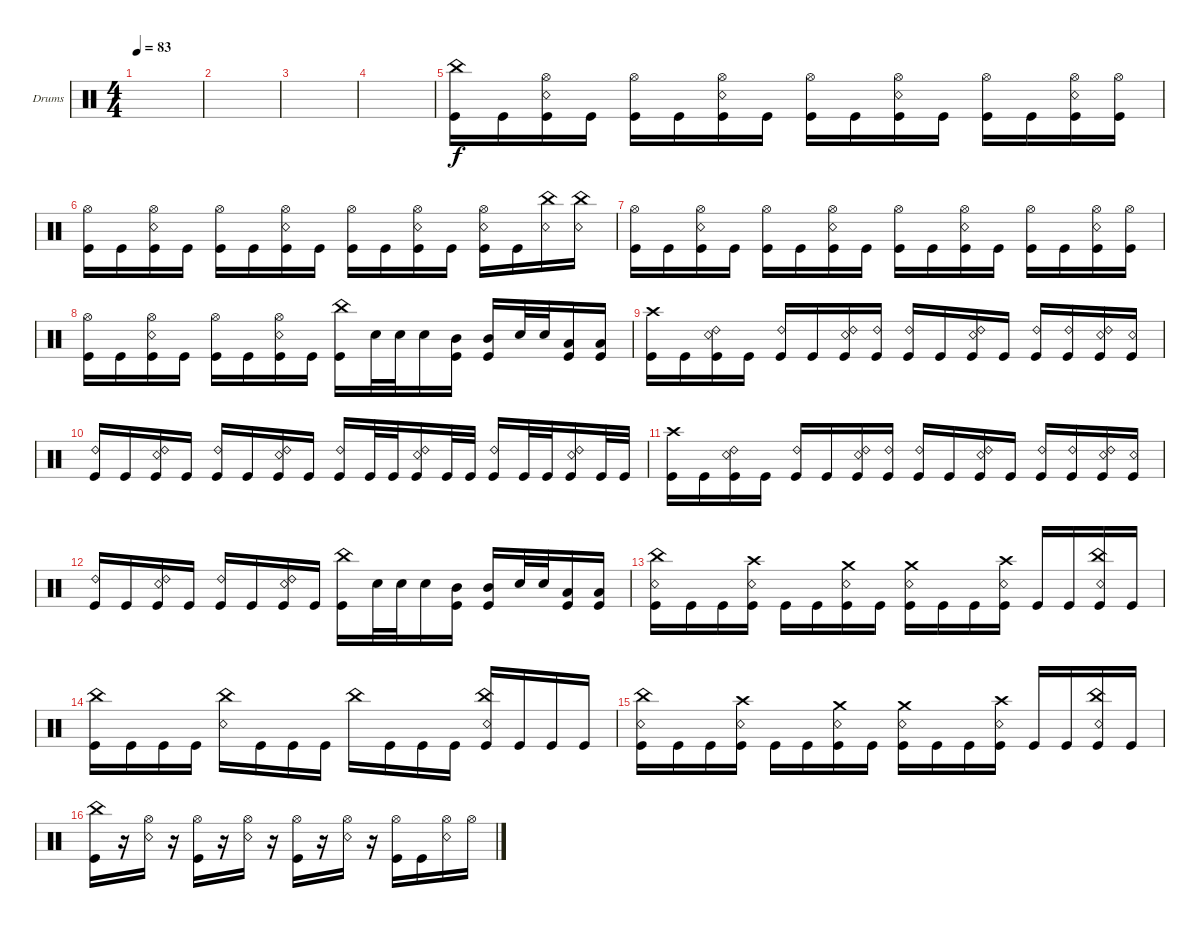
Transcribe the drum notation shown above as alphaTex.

\defaultSystemsLayout 4
\bracketExtendMode groupsimilarinstruments
\firstSystemTrackNameOrientation horizontal
\otherSystemsTrackNameOrientation horizontal
\track ("Drumkit" "Drums") {instrument percussion}
\staff {score}
\articulation defaults
\ts (4 4)
\tempo 83
\clef neutral
\ks c
|
|
|
|
("Kick (hit)" "China (hit)").16 "Kick (hit)".16 ("Kick (hit)" "Snare (rim shot)" "Hi-Hat (open)").16 "Kick (hit)".16 ("Kick (hit)" "Hi-Hat (open)").16 "Kick (hit)".16 ("Kick (hit)" "Snare (rim shot)" "Hi-Hat (open)").16 "Kick (hit)".16 ("Kick (hit)" "Hi-Hat (open)").16 "Kick (hit)".16 ("Kick (hit)" "Snare (rim shot)" "Hi-Hat (open)").16 "Kick (hit)".16 ("Kick (hit)" "Hi-Hat (open)").16 "Kick (hit)".16 ("Kick (hit)" "Snare (rim shot)" "Hi-Hat (open)").16 ("Kick (hit)" "Hi-Hat (open)").16 |
("Kick (hit)" "Hi-Hat (open)").16 "Kick (hit)".16 ("Kick (hit)" "Snare (rim shot)" "Hi-Hat (open)").16 "Kick (hit)".16 ("Kick (hit)" "Hi-Hat (open)").16 "Kick (hit)".16 ("Kick (hit)" "Snare (rim shot)" "Hi-Hat (open)").16 "Kick (hit)".16 ("Kick (hit)" "Hi-Hat (open)").16 "Kick (hit)".16 ("Kick (hit)" "Snare (rim shot)" "Hi-Hat (open)").16 "Kick (hit)".16 ("Kick (hit)" "Snare (rim shot)" "Hi-Hat (open)").16 "Kick (hit)".16 ("Snare (rim shot)" "China (hit)").16 ("Snare (rim shot)" "China (hit)").16 |
("Kick (hit)" "Hi-Hat (open)").16 "Kick (hit)".16 ("Kick (hit)" "Snare (rim shot)" "Hi-Hat (open)").16 "Kick (hit)".16 ("Kick (hit)" "Hi-Hat (open)").16 "Kick (hit)".16 ("Kick (hit)" "Snare (rim shot)" "Hi-Hat (open)").16 "Kick (hit)".16 ("Kick (hit)" "Hi-Hat (open)").16 "Kick (hit)".16 ("Kick (hit)" "Snare (rim shot)" "Hi-Hat (open)").16 "Kick (hit)".16 ("Kick (hit)" "Hi-Hat (open)").16 "Kick (hit)".16 ("Kick (hit)" "Snare (rim shot)" "Hi-Hat (open)").16 ("Kick (hit)" "Hi-Hat (open)").16 |
("Kick (hit)" "Hi-Hat (open)").16 "Kick (hit)".16 ("Kick (hit)" "Snare (rim shot)" "Hi-Hat (open)").16 "Kick (hit)".16 ("Kick (hit)" "Hi-Hat (open)").16 "Kick (hit)".16 ("Kick (hit)" "Snare (rim shot)" "Hi-Hat (open)").16 "Kick (hit)".16 ("China (hit)" "Kick (hit)").16 "Snare (hit) 2".32 "Snare (hit) 2".32 "Snare (hit) 2".16 ("Mid Tom (hit)" "Kick (hit)").16 ("Mid Tom (hit)" "Kick (hit)").16 "Snare (hit) 2".32 "Snare (hit) 2".32 ("Low Tom (hit)" "Kick (hit)").16 ("Low Tom (hit)" "Kick (hit)").16 |
("Kick (hit)" "Crash high (hit)").16 "Kick (hit)".16 ("Kick (hit)" "Ride (bell) 2" "Snare (rim shot)").16 "Kick (hit)".16 ("Kick (hit)" "Ride (bell) 2").16 "Kick (hit)".16 ("Kick (hit)" "Ride (bell) 2" "Snare (rim shot)").16 ("Kick (hit)" "Ride (bell) 2").16 ("Kick (hit)" "Ride (bell) 2").16 "Kick (hit)".16 ("Kick (hit)" "Ride (bell) 2" "Snare (rim shot)").16 "Kick (hit)".16 ("Kick (hit)" "Ride (bell) 2").16 ("Kick (hit)" "Ride (bell) 2").16 ("Kick (hit)" "Ride (bell) 2" "Snare (rim shot)").16 ("Kick (hit)" "Snare (rim shot)").16 |
("Kick (hit)" "Ride (bell) 2").16 "Kick (hit)".16 ("Kick (hit)" "Ride (bell) 2" "Snare (rim shot)").16 "Kick (hit)".16 ("Kick (hit)" "Ride (bell) 2").16 "Kick (hit)".16 ("Kick (hit)" "Ride (bell) 2" "Snare (rim shot)").16 "Kick (hit)".16 ("Kick (hit)" "Ride (bell) 2").16 "Kick (hit)".32 "Kick (hit)".32 ("Kick (hit)" "Ride (bell) 2" "Snare (rim shot)").16 "Kick (hit)".32 "Kick (hit)".32 ("Kick (hit)" "Ride (bell) 2").16 "Kick (hit)".32 "Kick (hit)".32 ("Kick (hit)" "Ride (bell) 2" "Snare (rim shot)").16 "Kick (hit)".32 "Kick (hit)".32 |
("Kick (hit)" "Crash high (hit)").16 "Kick (hit)".16 ("Kick (hit)" "Ride (bell) 2" "Snare (rim shot)").16 "Kick (hit)".16 ("Kick (hit)" "Ride (bell) 2").16 "Kick (hit)".16 ("Kick (hit)" "Ride (bell) 2" "Snare (rim shot)").16 ("Kick (hit)" "Ride (bell) 2").16 ("Kick (hit)" "Ride (bell) 2").16 "Kick (hit)".16 ("Kick (hit)" "Ride (bell) 2" "Snare (rim shot)").16 "Kick (hit)".16 ("Kick (hit)" "Ride (bell) 2").16 ("Kick (hit)" "Ride (bell) 2").16 ("Kick (hit)" "Ride (bell) 2" "Snare (rim shot)").16 ("Kick (hit)" "Snare (rim shot)").16 |
("Kick (hit)" "Ride (bell) 2").16 "Kick (hit)".16 ("Kick (hit)" "Ride (bell) 2" "Snare (rim shot)").16 "Kick (hit)".16 ("Kick (hit)" "Ride (bell) 2").16 "Kick (hit)".16 ("Kick (hit)" "Ride (bell) 2" "Snare (rim shot)").16 "Kick (hit)".16 ("China (hit)" "Kick (hit)").16 "Snare (hit) 2".32 "Snare (hit) 2".32 "Snare (hit) 2".16 ("Mid Tom (hit)" "Kick (hit)").16 ("Mid Tom (hit)" "Kick (hit)").16 "Snare (hit) 2".32 "Snare (hit) 2".32 ("Low Tom (hit)" "Kick (hit)").16 ("Low Tom (hit)" "Kick (hit)").16 |
("Kick (hit)" "Snare (rim shot)" "China (hit)").16 "Kick (hit)".16 "Kick (hit)".16 ("Kick (hit)" "Snare (rim shot)" "Crash high (hit)").16 "Kick (hit)".16 "Kick (hit)".16 ("Kick (hit)" "Snare (rim shot)" "Crash medium (hit)").16 "Kick (hit)".16 ("Kick (hit)" "Snare (rim shot)" "Crash medium (hit)").16 "Kick (hit)".16 "Kick (hit)".16 ("Kick (hit)" "Snare (rim shot)" "Crash high (hit)").16 "Kick (hit)".16 "Kick (hit)".16 ("Kick (hit)" "Snare (rim shot)" "China (hit)").16 "Kick (hit)".16 |
("Kick (hit)" "China (hit)").16 "Kick (hit)".16 "Kick (hit)".16 "Kick (hit)".16 ("Snare (rim shot)" "China (hit)").16 "Kick (hit)".16 "Kick (hit)".16 "Kick (hit)".16 "China (hit)".16 "Kick (hit)".16 "Kick (hit)".16 "Kick (hit)".16 ("Kick (hit)" "Snare (rim shot)" "China (hit)").16 "Kick (hit)".16 "Kick (hit)".16 "Kick (hit)".16 |
("Kick (hit)" "Snare (rim shot)" "China (hit)").16 "Kick (hit)".16 "Kick (hit)".16 ("Kick (hit)" "Snare (rim shot)" "Crash high (hit)").16 "Kick (hit)".16 "Kick (hit)".16 ("Kick (hit)" "Snare (rim shot)" "Crash medium (hit)").16 "Kick (hit)".16 ("Kick (hit)" "Snare (rim shot)" "Crash medium (hit)").16 "Kick (hit)".16 "Kick (hit)".16 ("Kick (hit)" "Snare (rim shot)" "Crash high (hit)").16 "Kick (hit)".16 "Kick (hit)".16 ("Kick (hit)" "Snare (rim shot)" "China (hit)").16 "Kick (hit)".16 |
("Kick (hit)" "China (hit)").16 r.16 ("Snare (rim shot)" "Hi-Hat (open)").16 r.16 ("Kick (hit)" "Hi-Hat (open)").16 r.16 ("Snare (rim shot)" "Hi-Hat (open)").16 r.16 ("Hi-Hat (open)" "Kick (hit)").16 r.16 ("Snare (rim shot)" "Hi-Hat (open)").16 r.16 ("Kick (hit)" "Hi-Hat (open)").16 "Kick (hit)".16 ("Snare (rim shot)" "Hi-Hat (open)").16 "Hi-Hat (open)".16
